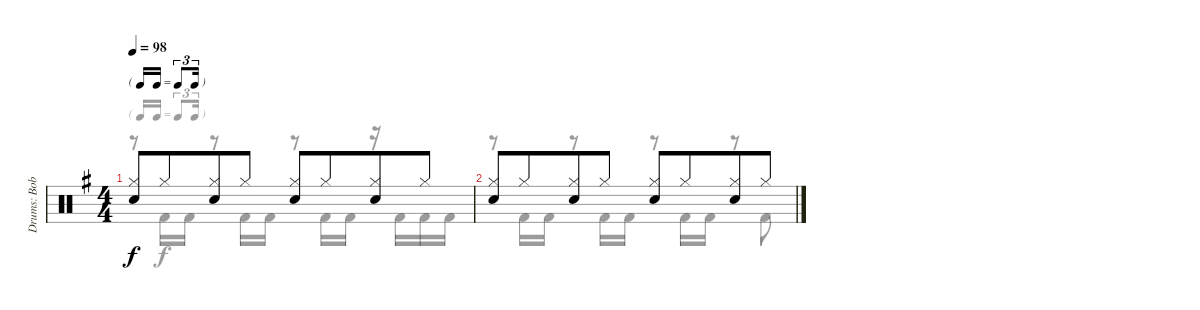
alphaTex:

\track ("Drums: Bobby" "Drums: Bob") {instrument percussion}
\staff {score}
\articulation defaults
\voice
\ts (4 4)
\tf triplet16th
\tempo 98
\clef neutral
\ks g
("Hi-Hat (closed)" "Snare (hit) 2").8{dy f} "Hi-Hat (closed)".8{beam merge} ("Hi-Hat (closed)" "Snare (hit) 2").8 "Hi-Hat (closed)".8 ("Hi-Hat (closed)" "Snare (hit) 2").8 "Hi-Hat (closed)".8{beam merge} ("Hi-Hat (closed)" "Snare (hit) 2").8 "Hi-Hat (closed)".8 |
("Hi-Hat (closed)" "Snare (hit) 2").8 "Hi-Hat (closed)".8{beam merge} ("Hi-Hat (closed)" "Snare (hit) 2").8 "Hi-Hat (closed)".8 ("Hi-Hat (closed)" "Snare (hit) 2").8 "Hi-Hat (closed)".8{beam merge} ("Hi-Hat (closed)" "Snare (hit) 2").8 "Hi-Hat (closed)".8
\voice
\clef neutral
\ottava regular
\simile none
\ks g
r.8{dy f} "Kick (hit) 2".16 "Kick (hit) 2".16 r.8 "Kick (hit) 2".16 "Kick (hit) 2".16 r.8 "Kick (hit) 2".16 "Kick (hit) 2".16 r.16 "Kick (hit) 2".16 "Kick (hit) 2".16 "Kick (hit) 2".16 |
r.8 "Kick (hit) 2".16 "Kick (hit) 2".16 r.8 "Kick (hit) 2".16 "Kick (hit) 2".16 r.8 "Kick (hit) 2".16 "Kick (hit) 2".16 r.8 "Kick (hit) 2".8
